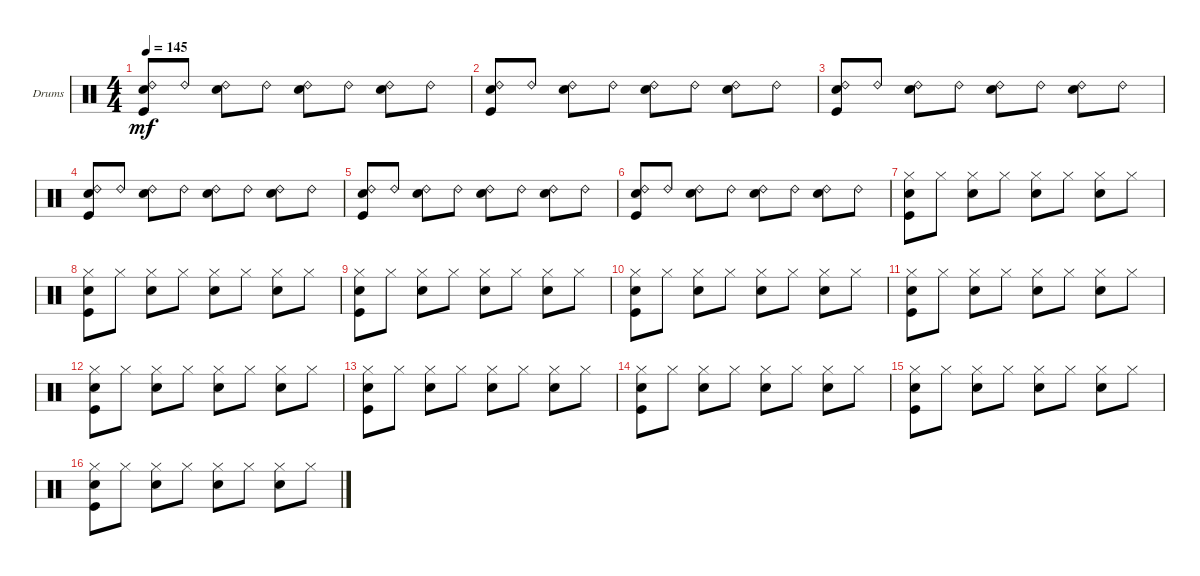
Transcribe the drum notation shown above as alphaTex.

\bracketExtendMode groupsimilarinstruments
\firstSystemTrackNameOrientation horizontal
\otherSystemsTrackNameOrientation horizontal
\track ("Drumkit" "Drums") {instrument percussion}
\staff {score}
\articulation defaults
\ts (4 4)
\tempo 145
\clef neutral
\ks c
("Kick (hit)" "Snare (hit) 2" "Ride (bell) 2").8{dy mf} "Ride (bell) 2".8 ("Snare (hit) 2" "Ride (bell) 2").8 "Ride (bell) 2".8 ("Snare (hit) 2" "Ride (bell) 2").8 "Ride (bell) 2".8 ("Snare (hit) 2" "Ride (bell) 2").8 "Ride (bell) 2".8 |
("Kick (hit)" "Snare (hit) 2" "Ride (bell) 2").8 "Ride (bell) 2".8 ("Snare (hit) 2" "Ride (bell) 2").8 "Ride (bell) 2".8 ("Snare (hit) 2" "Ride (bell) 2").8 "Ride (bell) 2".8 ("Snare (hit) 2" "Ride (bell) 2").8 "Ride (bell) 2".8 |
("Kick (hit)" "Snare (hit) 2" "Ride (bell) 2").8 "Ride (bell) 2".8 ("Snare (hit) 2" "Ride (bell) 2").8 "Ride (bell) 2".8 ("Snare (hit) 2" "Ride (bell) 2").8 "Ride (bell) 2".8 ("Snare (hit) 2" "Ride (bell) 2").8 "Ride (bell) 2".8 |
("Kick (hit)" "Snare (hit) 2" "Ride (bell) 2").8 "Ride (bell) 2".8 ("Snare (hit) 2" "Ride (bell) 2").8 "Ride (bell) 2".8 ("Snare (hit) 2" "Ride (bell) 2").8 "Ride (bell) 2".8 ("Snare (hit) 2" "Ride (bell) 2").8 "Ride (bell) 2".8 |
("Kick (hit)" "Snare (hit) 2" "Ride (bell) 2").8 "Ride (bell) 2".8 ("Snare (hit) 2" "Ride (bell) 2").8 "Ride (bell) 2".8 ("Snare (hit) 2" "Ride (bell) 2").8 "Ride (bell) 2".8 ("Snare (hit) 2" "Ride (bell) 2").8 "Ride (bell) 2".8 |
("Kick (hit)" "Snare (hit) 2" "Ride (bell) 2").8 "Ride (bell) 2".8 ("Snare (hit) 2" "Ride (bell) 2").8 "Ride (bell) 2".8 ("Snare (hit) 2" "Ride (bell) 2").8 "Ride (bell) 2".8 ("Snare (hit) 2" "Ride (bell) 2").8 "Ride (bell) 2".8 |
("Hi-Hat (closed)" "Kick (hit)" "Snare (hit) 2").8 "Hi-Hat (closed)".8 ("Hi-Hat (closed)" "Snare (hit) 2").8 "Hi-Hat (closed)".8 ("Hi-Hat (closed)" "Snare (hit) 2").8 "Hi-Hat (closed)".8 ("Hi-Hat (closed)" "Snare (hit) 2").8 "Hi-Hat (closed)".8 |
("Hi-Hat (closed)" "Kick (hit)" "Snare (hit) 2").8 "Hi-Hat (closed)".8 ("Hi-Hat (closed)" "Snare (hit) 2").8 "Hi-Hat (closed)".8 ("Hi-Hat (closed)" "Snare (hit) 2").8 "Hi-Hat (closed)".8 ("Hi-Hat (closed)" "Snare (hit) 2").8 "Hi-Hat (closed)".8 |
("Hi-Hat (closed)" "Kick (hit)" "Snare (hit) 2").8 "Hi-Hat (closed)".8 ("Hi-Hat (closed)" "Snare (hit) 2").8 "Hi-Hat (closed)".8 ("Hi-Hat (closed)" "Snare (hit) 2").8 "Hi-Hat (closed)".8 ("Hi-Hat (closed)" "Snare (hit) 2").8 "Hi-Hat (closed)".8 |
("Hi-Hat (closed)" "Kick (hit)" "Snare (hit) 2").8 "Hi-Hat (closed)".8 ("Hi-Hat (closed)" "Snare (hit) 2").8 "Hi-Hat (closed)".8 ("Hi-Hat (closed)" "Snare (hit) 2").8 "Hi-Hat (closed)".8 ("Hi-Hat (closed)" "Snare (hit) 2").8 "Hi-Hat (closed)".8 |
("Hi-Hat (closed)" "Kick (hit)" "Snare (hit) 2").8 "Hi-Hat (closed)".8 ("Hi-Hat (closed)" "Snare (hit) 2").8 "Hi-Hat (closed)".8 ("Hi-Hat (closed)" "Snare (hit) 2").8 "Hi-Hat (closed)".8 ("Hi-Hat (closed)" "Snare (hit) 2").8 "Hi-Hat (closed)".8 |
("Hi-Hat (closed)" "Kick (hit)" "Snare (hit) 2").8 "Hi-Hat (closed)".8 ("Hi-Hat (closed)" "Snare (hit) 2").8 "Hi-Hat (closed)".8 ("Hi-Hat (closed)" "Snare (hit) 2").8 "Hi-Hat (closed)".8 ("Hi-Hat (closed)" "Snare (hit) 2").8 "Hi-Hat (closed)".8 |
("Hi-Hat (closed)" "Kick (hit)" "Snare (hit) 2").8 "Hi-Hat (closed)".8 ("Hi-Hat (closed)" "Snare (hit) 2").8 "Hi-Hat (closed)".8 ("Hi-Hat (closed)" "Snare (hit) 2").8 "Hi-Hat (closed)".8 ("Hi-Hat (closed)" "Snare (hit) 2").8 "Hi-Hat (closed)".8 |
("Hi-Hat (closed)" "Kick (hit)" "Snare (hit) 2").8 "Hi-Hat (closed)".8 ("Hi-Hat (closed)" "Snare (hit) 2").8 "Hi-Hat (closed)".8 ("Hi-Hat (closed)" "Snare (hit) 2").8 "Hi-Hat (closed)".8 ("Hi-Hat (closed)" "Snare (hit) 2").8 "Hi-Hat (closed)".8 |
("Hi-Hat (closed)" "Kick (hit)" "Snare (hit) 2").8 "Hi-Hat (closed)".8 ("Hi-Hat (closed)" "Snare (hit) 2").8 "Hi-Hat (closed)".8 ("Hi-Hat (closed)" "Snare (hit) 2").8 "Hi-Hat (closed)".8 ("Hi-Hat (closed)" "Snare (hit) 2").8 "Hi-Hat (closed)".8 |
("Hi-Hat (closed)" "Kick (hit)" "Snare (hit) 2").8 "Hi-Hat (closed)".8 ("Hi-Hat (closed)" "Snare (hit) 2").8 "Hi-Hat (closed)".8 ("Hi-Hat (closed)" "Snare (hit) 2").8 "Hi-Hat (closed)".8 ("Hi-Hat (closed)" "Snare (hit) 2").8 "Hi-Hat (closed)".8
